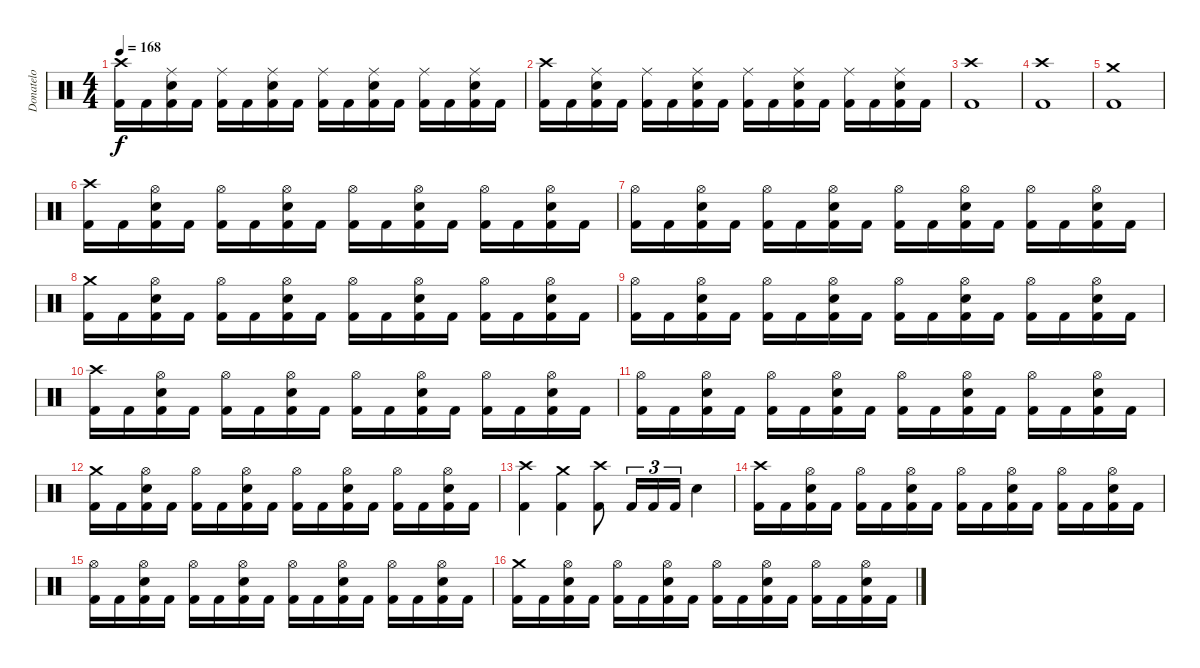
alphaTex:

\track ("Donatelo" "Donatelo") {instrument percussion}
\staff {score}
\articulation defaults
\ts (4 4)
\tempo 168
\clef neutral
\ks c
("Kick (hit) 2" "Crash high (hit)").16{dy f} "Kick (hit) 2".16 ("Kick (hit) 2" "Electric Snare (hit)" "Ride (middle)").16 "Kick (hit) 2".16 ("Kick (hit) 2" "Ride (middle)").16 "Kick (hit) 2".16 ("Kick (hit) 2" "Electric Snare (hit)" "Ride (middle)").16 "Kick (hit) 2".16 ("Kick (hit) 2" "Ride (middle)").16 "Kick (hit) 2".16 ("Kick (hit) 2" "Electric Snare (hit)" "Ride (middle)").16 "Kick (hit) 2".16 ("Kick (hit) 2" "Ride (middle)").16 "Kick (hit) 2".16 ("Kick (hit) 2" "Electric Snare (hit)" "Ride (middle)").16 "Kick (hit) 2".16 |
("Kick (hit) 2" "Crash high (hit)").16 "Kick (hit) 2".16 ("Kick (hit) 2" "Electric Snare (hit)" "Ride (middle)").16 "Kick (hit) 2".16 ("Kick (hit) 2" "Ride (middle)").16 "Kick (hit) 2".16 ("Kick (hit) 2" "Electric Snare (hit)" "Ride (middle)").16 "Kick (hit) 2".16 ("Kick (hit) 2" "Ride (middle)").16 "Kick (hit) 2".16 ("Kick (hit) 2" "Electric Snare (hit)" "Ride (middle)").16 "Kick (hit) 2".16 ("Kick (hit) 2" "Ride (middle)").16 "Kick (hit) 2".16 ("Kick (hit) 2" "Electric Snare (hit)" "Ride (middle)").16 "Kick (hit) 2".16 |
("Kick (hit) 2" "Crash high (hit)").1 |
("Kick (hit) 2" "Crash high (hit)").1 |
("Kick (hit) 2" "Crash medium (hit)").1 |
("Kick (hit) 2" "Crash high (hit)").16 "Kick (hit) 2".16 ("Kick (hit) 2" "Electric Snare (hit)" "Hi-Hat (open)").16 "Kick (hit) 2".16 ("Kick (hit) 2" "Hi-Hat (open)").16 "Kick (hit) 2".16 ("Kick (hit) 2" "Electric Snare (hit)" "Hi-Hat (open)").16 "Kick (hit) 2".16 ("Kick (hit) 2" "Hi-Hat (open)").16 "Kick (hit) 2".16 ("Kick (hit) 2" "Electric Snare (hit)" "Hi-Hat (open)").16 "Kick (hit) 2".16 ("Kick (hit) 2" "Hi-Hat (open)").16 "Kick (hit) 2".16 ("Kick (hit) 2" "Electric Snare (hit)" "Hi-Hat (open)").16 "Kick (hit) 2".16 |
("Kick (hit) 2" "Hi-Hat (open)").16 "Kick (hit) 2".16 ("Kick (hit) 2" "Electric Snare (hit)" "Hi-Hat (open)").16 "Kick (hit) 2".16 ("Kick (hit) 2" "Hi-Hat (open)").16 "Kick (hit) 2".16 ("Kick (hit) 2" "Electric Snare (hit)" "Hi-Hat (open)").16 "Kick (hit) 2".16 ("Kick (hit) 2" "Hi-Hat (open)").16 "Kick (hit) 2".16 ("Kick (hit) 2" "Electric Snare (hit)" "Hi-Hat (open)").16 "Kick (hit) 2".16 ("Kick (hit) 2" "Hi-Hat (open)").16 "Kick (hit) 2".16 ("Kick (hit) 2" "Electric Snare (hit)" "Hi-Hat (open)").16 "Kick (hit) 2".16 |
("Kick (hit) 2" "Crash medium (hit)").16 "Kick (hit) 2".16 ("Kick (hit) 2" "Electric Snare (hit)" "Hi-Hat (open)").16 "Kick (hit) 2".16 ("Kick (hit) 2" "Hi-Hat (open)").16 "Kick (hit) 2".16 ("Kick (hit) 2" "Electric Snare (hit)" "Hi-Hat (open)").16 "Kick (hit) 2".16 ("Kick (hit) 2" "Hi-Hat (open)").16 "Kick (hit) 2".16 ("Kick (hit) 2" "Electric Snare (hit)" "Hi-Hat (open)").16 "Kick (hit) 2".16 ("Kick (hit) 2" "Hi-Hat (open)").16 "Kick (hit) 2".16 ("Kick (hit) 2" "Electric Snare (hit)" "Hi-Hat (open)").16 "Kick (hit) 2".16 |
("Kick (hit) 2" "Hi-Hat (open)").16 "Kick (hit) 2".16 ("Kick (hit) 2" "Electric Snare (hit)" "Hi-Hat (open)").16 "Kick (hit) 2".16 ("Kick (hit) 2" "Hi-Hat (open)").16 "Kick (hit) 2".16 ("Kick (hit) 2" "Electric Snare (hit)" "Hi-Hat (open)").16 "Kick (hit) 2".16 ("Kick (hit) 2" "Hi-Hat (open)").16 "Kick (hit) 2".16 ("Kick (hit) 2" "Electric Snare (hit)" "Hi-Hat (open)").16 "Kick (hit) 2".16 ("Kick (hit) 2" "Hi-Hat (open)").16 "Kick (hit) 2".16 ("Kick (hit) 2" "Electric Snare (hit)" "Hi-Hat (open)").16 "Kick (hit) 2".16 |
("Kick (hit) 2" "Crash high (hit)").16 "Kick (hit) 2".16 ("Kick (hit) 2" "Electric Snare (hit)" "Hi-Hat (open)").16 "Kick (hit) 2".16 ("Kick (hit) 2" "Hi-Hat (open)").16 "Kick (hit) 2".16 ("Kick (hit) 2" "Electric Snare (hit)" "Hi-Hat (open)").16 "Kick (hit) 2".16 ("Kick (hit) 2" "Hi-Hat (open)").16 "Kick (hit) 2".16 ("Kick (hit) 2" "Electric Snare (hit)" "Hi-Hat (open)").16 "Kick (hit) 2".16 ("Kick (hit) 2" "Hi-Hat (open)").16 "Kick (hit) 2".16 ("Kick (hit) 2" "Electric Snare (hit)" "Hi-Hat (open)").16 "Kick (hit) 2".16 |
("Kick (hit) 2" "Hi-Hat (open)").16 "Kick (hit) 2".16 ("Kick (hit) 2" "Electric Snare (hit)" "Hi-Hat (open)").16 "Kick (hit) 2".16 ("Kick (hit) 2" "Hi-Hat (open)").16 "Kick (hit) 2".16 ("Kick (hit) 2" "Electric Snare (hit)" "Hi-Hat (open)").16 "Kick (hit) 2".16 ("Kick (hit) 2" "Hi-Hat (open)").16 "Kick (hit) 2".16 ("Kick (hit) 2" "Electric Snare (hit)" "Hi-Hat (open)").16 "Kick (hit) 2".16 ("Kick (hit) 2" "Hi-Hat (open)").16 "Kick (hit) 2".16 ("Kick (hit) 2" "Electric Snare (hit)" "Hi-Hat (open)").16 "Kick (hit) 2".16 |
("Kick (hit) 2" "Crash medium (hit)").16 "Kick (hit) 2".16 ("Kick (hit) 2" "Electric Snare (hit)" "Hi-Hat (open)").16 "Kick (hit) 2".16 ("Kick (hit) 2" "Hi-Hat (open)").16 "Kick (hit) 2".16 ("Kick (hit) 2" "Electric Snare (hit)" "Hi-Hat (open)").16 "Kick (hit) 2".16 ("Kick (hit) 2" "Hi-Hat (open)").16 "Kick (hit) 2".16 ("Kick (hit) 2" "Electric Snare (hit)" "Hi-Hat (open)").16 "Kick (hit) 2".16 ("Kick (hit) 2" "Hi-Hat (open)").16 "Kick (hit) 2".16 ("Kick (hit) 2" "Electric Snare (hit)" "Hi-Hat (open)").16 "Kick (hit) 2".16 |
("Kick (hit) 2" "Crash high (hit)").4 ("Kick (hit) 2" "Crash medium (hit)").4 ("Kick (hit) 2" "Crash high (hit)").8 "Kick (hit) 2".16{tu (3 2)} "Kick (hit) 2".16{tu (3 2)} "Kick (hit) 2".16{tu (3 2)} "Electric Snare (hit)".4 |
("Kick (hit) 2" "Crash high (hit)").16 "Kick (hit) 2".16 ("Kick (hit) 2" "Electric Snare (hit)" "Hi-Hat (open)").16 "Kick (hit) 2".16 ("Kick (hit) 2" "Hi-Hat (open)").16 "Kick (hit) 2".16 ("Kick (hit) 2" "Electric Snare (hit)" "Hi-Hat (open)").16 "Kick (hit) 2".16 ("Kick (hit) 2" "Hi-Hat (open)").16 "Kick (hit) 2".16 ("Kick (hit) 2" "Electric Snare (hit)" "Hi-Hat (open)").16 "Kick (hit) 2".16 ("Kick (hit) 2" "Hi-Hat (open)").16 "Kick (hit) 2".16 ("Kick (hit) 2" "Electric Snare (hit)" "Hi-Hat (open)").16 "Kick (hit) 2".16 |
("Kick (hit) 2" "Hi-Hat (open)").16 "Kick (hit) 2".16 ("Kick (hit) 2" "Electric Snare (hit)" "Hi-Hat (open)").16 "Kick (hit) 2".16 ("Kick (hit) 2" "Hi-Hat (open)").16 "Kick (hit) 2".16 ("Kick (hit) 2" "Electric Snare (hit)" "Hi-Hat (open)").16 "Kick (hit) 2".16 ("Kick (hit) 2" "Hi-Hat (open)").16 "Kick (hit) 2".16 ("Kick (hit) 2" "Electric Snare (hit)" "Hi-Hat (open)").16 "Kick (hit) 2".16 ("Kick (hit) 2" "Hi-Hat (open)").16 "Kick (hit) 2".16 ("Kick (hit) 2" "Electric Snare (hit)" "Hi-Hat (open)").16 "Kick (hit) 2".16 |
("Kick (hit) 2" "Crash medium (hit)").16 "Kick (hit) 2".16 ("Kick (hit) 2" "Electric Snare (hit)" "Hi-Hat (open)").16 "Kick (hit) 2".16 ("Kick (hit) 2" "Hi-Hat (open)").16 "Kick (hit) 2".16 ("Kick (hit) 2" "Electric Snare (hit)" "Hi-Hat (open)").16 "Kick (hit) 2".16 ("Kick (hit) 2" "Hi-Hat (open)").16 "Kick (hit) 2".16 ("Kick (hit) 2" "Electric Snare (hit)" "Hi-Hat (open)").16 "Kick (hit) 2".16 ("Kick (hit) 2" "Hi-Hat (open)").16 "Kick (hit) 2".16 ("Kick (hit) 2" "Electric Snare (hit)" "Hi-Hat (open)").16 "Kick (hit) 2".16
